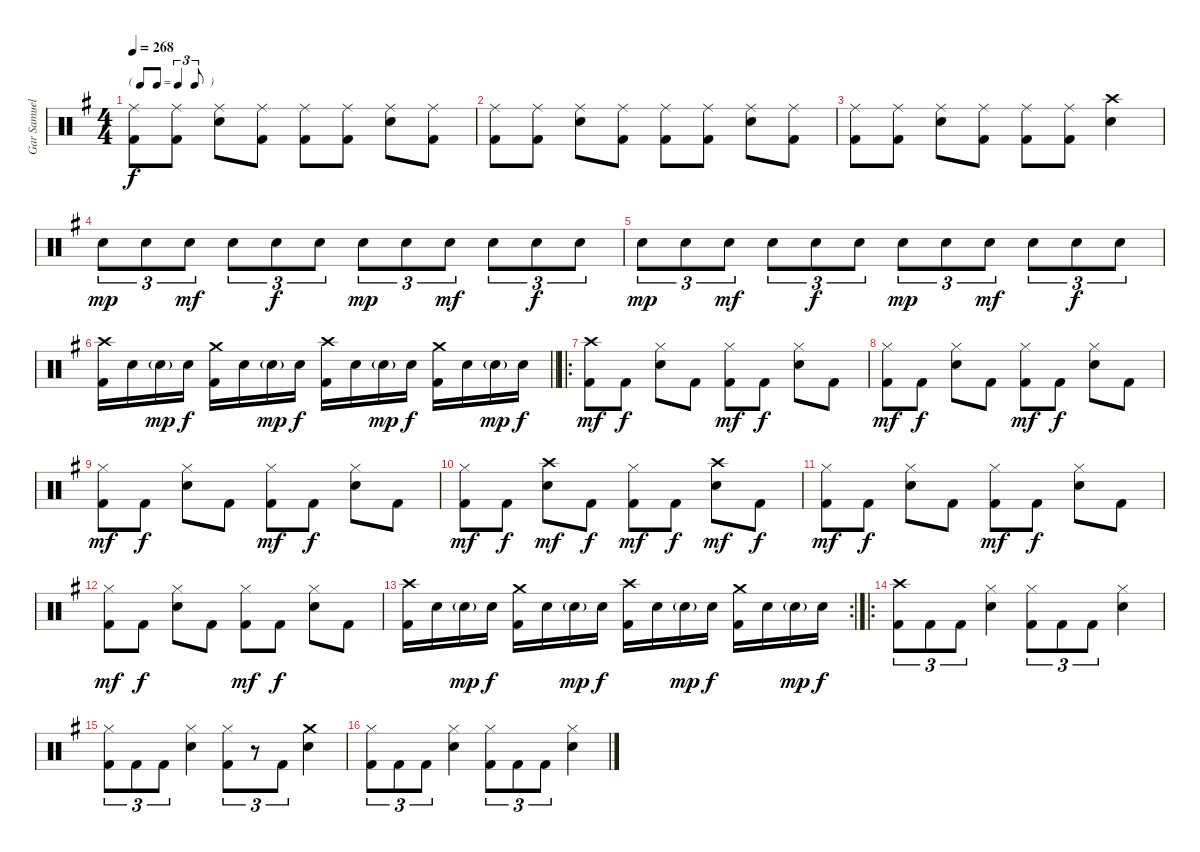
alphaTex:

\track ("Gar Samuelson" "Gar Samuel") {instrument percussion}
\staff {score}
\articulation defaults
\ts (4 4)
\tf triplet8th
\tempo 268
\clef neutral
\ks g
("Ride (middle)" "Kick (hit) 2").8{dy f} ("Ride (middle)" "Kick (hit) 2").8 ("Ride (middle)" "Snare (hit) 2").8 ("Ride (middle)" "Kick (hit) 2").8 ("Ride (middle)" "Kick (hit) 2").8 ("Ride (middle)" "Kick (hit) 2").8 ("Ride (middle)" "Snare (hit) 2").8 ("Ride (middle)" "Kick (hit) 2").8 |
("Ride (middle)" "Kick (hit) 2").8 ("Ride (middle)" "Kick (hit) 2").8 ("Ride (middle)" "Snare (hit) 2").8 ("Ride (middle)" "Kick (hit) 2").8 ("Ride (middle)" "Kick (hit) 2").8 ("Ride (middle)" "Kick (hit) 2").8 ("Ride (middle)" "Snare (hit) 2").8 ("Ride (middle)" "Kick (hit) 2").8 |
("Ride (middle)" "Kick (hit) 2").8 ("Ride (middle)" "Kick (hit) 2").8 ("Ride (middle)" "Snare (hit) 2").8 ("Ride (middle)" "Kick (hit) 2").8 ("Ride (middle)" "Kick (hit) 2").8 ("Ride (middle)" "Kick (hit) 2").8 ("Crash high (hit)" "Snare (hit) 2").4 |
"Snare (hit) 2".8{tu (3 2) dy mp} "Snare (hit) 2".8{tu (3 2)} "Snare (hit) 2".8{tu (3 2) dy mf} "Snare (hit) 2".8{tu (3 2)} "Snare (hit) 2".8{tu (3 2) dy f} "Snare (hit) 2".8{tu (3 2)} "Snare (hit) 2".8{tu (3 2) dy mp} "Snare (hit) 2".8{tu (3 2)} "Snare (hit) 2".8{tu (3 2) dy mf} "Snare (hit) 2".8{tu (3 2)} "Snare (hit) 2".8{tu (3 2) dy f} "Snare (hit) 2".8{tu (3 2)} |
"Snare (hit) 2".8{tu (3 2) dy mp} "Snare (hit) 2".8{tu (3 2)} "Snare (hit) 2".8{tu (3 2) dy mf} "Snare (hit) 2".8{tu (3 2)} "Snare (hit) 2".8{tu (3 2) dy f} "Snare (hit) 2".8{tu (3 2)} "Snare (hit) 2".8{tu (3 2) dy mp} "Snare (hit) 2".8{tu (3 2)} "Snare (hit) 2".8{tu (3 2) dy mf} "Snare (hit) 2".8{tu (3 2)} "Snare (hit) 2".8{tu (3 2) dy f} "Snare (hit) 2".8{tu (3 2)} |
\barLineRight lightlight
("Crash high (hit)" "Kick (hit) 2").16 "Snare (hit) 2".16 "Snare (hit) 2"{g}.16{dy mp} "Snare (hit) 2".16{dy f} ("Crash medium (hit)" "Kick (hit) 2").16 "Snare (hit) 2".16 "Snare (hit) 2"{g}.16{dy mp} "Snare (hit) 2".16{dy f} ("Crash high (hit)" "Kick (hit) 2").16 "Snare (hit) 2".16 "Snare (hit) 2"{g}.16{dy mp} "Snare (hit) 2".16{dy f} ("Crash medium (hit)" "Kick (hit) 2").16 "Snare (hit) 2".16 "Snare (hit) 2"{g}.16{dy mp} "Snare (hit) 2".16{dy f} |
\ro
("Crash high (hit)" "Kick (hit) 2").8{dy mf} "Kick (hit) 2".8{dy f} ("Hi-Hat (closed)" "Snare (hit) 2").8 "Kick (hit) 2".8 ("Hi-Hat (closed)" "Kick (hit) 2").8{dy mf} "Kick (hit) 2".8{dy f} ("Hi-Hat (closed)" "Snare (hit) 2").8 "Kick (hit) 2".8 |
("Hi-Hat (closed)" "Kick (hit) 2").8{dy mf} "Kick (hit) 2".8{dy f} ("Hi-Hat (closed)" "Snare (hit) 2").8 "Kick (hit) 2".8 ("Hi-Hat (closed)" "Kick (hit) 2").8{dy mf} "Kick (hit) 2".8{dy f} ("Hi-Hat (closed)" "Snare (hit) 2").8 "Kick (hit) 2".8 |
("Hi-Hat (closed)" "Kick (hit) 2").8{dy mf} "Kick (hit) 2".8{dy f} ("Hi-Hat (closed)" "Snare (hit) 2").8 "Kick (hit) 2".8 ("Hi-Hat (closed)" "Kick (hit) 2").8{dy mf} "Kick (hit) 2".8{dy f} ("Hi-Hat (closed)" "Snare (hit) 2").8 "Kick (hit) 2".8 |
("Hi-Hat (closed)" "Kick (hit) 2").8{dy mf} "Kick (hit) 2".8{dy f} ("Crash high (hit)" "Snare (hit) 2").8{dy mf} "Kick (hit) 2".8{dy f} ("Hi-Hat (closed)" "Kick (hit) 2").8{dy mf} "Kick (hit) 2".8{dy f} ("Crash high (hit)" "Snare (hit) 2").8{dy mf} "Kick (hit) 2".8{dy f} |
("Hi-Hat (closed)" "Kick (hit) 2").8{dy mf} "Kick (hit) 2".8{dy f} ("Hi-Hat (closed)" "Snare (hit) 2").8 "Kick (hit) 2".8 ("Hi-Hat (closed)" "Kick (hit) 2").8{dy mf} "Kick (hit) 2".8{dy f} ("Hi-Hat (closed)" "Snare (hit) 2").8 "Kick (hit) 2".8 |
("Hi-Hat (closed)" "Kick (hit) 2").8{dy mf} "Kick (hit) 2".8{dy f} ("Hi-Hat (closed)" "Snare (hit) 2").8 "Kick (hit) 2".8 ("Hi-Hat (closed)" "Kick (hit) 2").8{dy mf} "Kick (hit) 2".8{dy f} ("Hi-Hat (closed)" "Snare (hit) 2").8 "Kick (hit) 2".8 |
\rc 2
("Crash high (hit)" "Kick (hit) 2").16 "Snare (hit) 2".16 "Snare (hit) 2"{g}.16{dy mp} "Snare (hit) 2".16{dy f} ("Crash medium (hit)" "Kick (hit) 2").16 "Snare (hit) 2".16 "Snare (hit) 2"{g}.16{dy mp} "Snare (hit) 2".16{dy f} ("Crash high (hit)" "Kick (hit) 2").16 "Snare (hit) 2".16 "Snare (hit) 2"{g}.16{dy mp} "Snare (hit) 2".16{dy f} ("Crash medium (hit)" "Kick (hit) 2").16 "Snare (hit) 2".16 "Snare (hit) 2"{g}.16{dy mp} "Snare (hit) 2".16{dy f} |
\ro
("Crash high (hit)" "Kick (hit) 2").8{tu (3 2)} "Kick (hit) 2".8{tu (3 2)} "Kick (hit) 2".8{tu (3 2)} ("Hi-Hat (closed)" "Snare (hit) 2").4 ("Hi-Hat (closed)" "Kick (hit) 2").8{tu (3 2)} "Kick (hit) 2".8{tu (3 2)} "Kick (hit) 2".8{tu (3 2)} ("Hi-Hat (closed)" "Snare (hit) 2").4 |
("Hi-Hat (closed)" "Kick (hit) 2").8{tu (3 2)} "Kick (hit) 2".8{tu (3 2)} "Kick (hit) 2".8{tu (3 2)} ("Hi-Hat (closed)" "Snare (hit) 2").4 ("Hi-Hat (closed)" "Kick (hit) 2").8{tu (3 2)} r.8{tu (3 2)} "Kick (hit) 2".8{tu (3 2)} ("Crash medium (hit)" "Snare (hit) 2").4 |
("Hi-Hat (closed)" "Kick (hit) 2").8{tu (3 2)} "Kick (hit) 2".8{tu (3 2)} "Kick (hit) 2".8{tu (3 2)} ("Hi-Hat (closed)" "Snare (hit) 2").4 ("Hi-Hat (closed)" "Kick (hit) 2").8{tu (3 2)} "Kick (hit) 2".8{tu (3 2)} "Kick (hit) 2".8{tu (3 2)} ("Hi-Hat (closed)" "Snare (hit) 2").4
